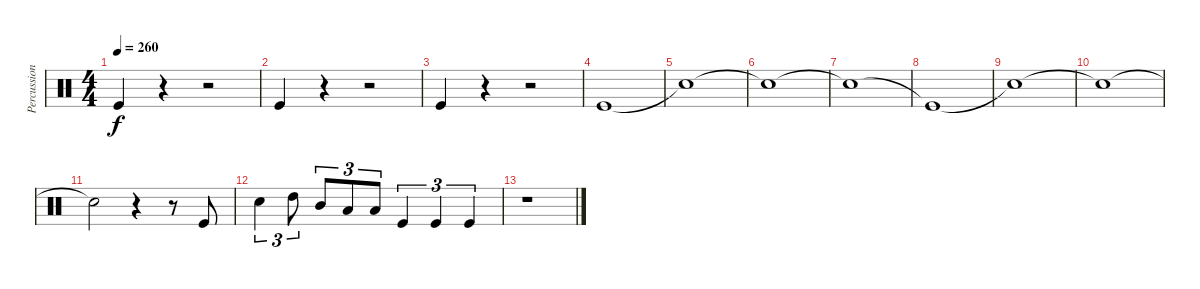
\track ("Percussion" "Percussion") {instrument percussion}
\staff {score}
\articulation defaults
\ts (4 4)
\tempo 260
\clef neutral
\ks c "Kick (hit)".4{dy f}
r.4 r.2 |
"Kick (hit)".4 r.4 r.2 |
"Kick (hit)".4 r.4 r.2 |
"Kick (hit)".1 |
"Snare (hit)"{t}.1 |
"Snare (hit)"{t}.1 |
"Snare (hit)"{t}.1 |
"Kick (hit)"{t}.1 |
"Snare (hit)"{t}.1 |
"Snare (hit)"{t}.1 |
"Snare (hit)"{t}.2 r.4 r.8 "Kick (hit)".8 |
"Snare (hit) 2".4{tu (3 2)} "High Tom (hit)".8{tu (3 2)} "Mid Tom (hit)".8{tu (3 2)} "Low Tom (hit)".8{tu (3 2)} "Low Tom (hit)".8{tu (3 2)} "Kick (hit)".4{tu (3 2)} "Kick (hit)".4{tu (3 2)} "Kick (hit)".4{tu (3 2)} |
r.1
